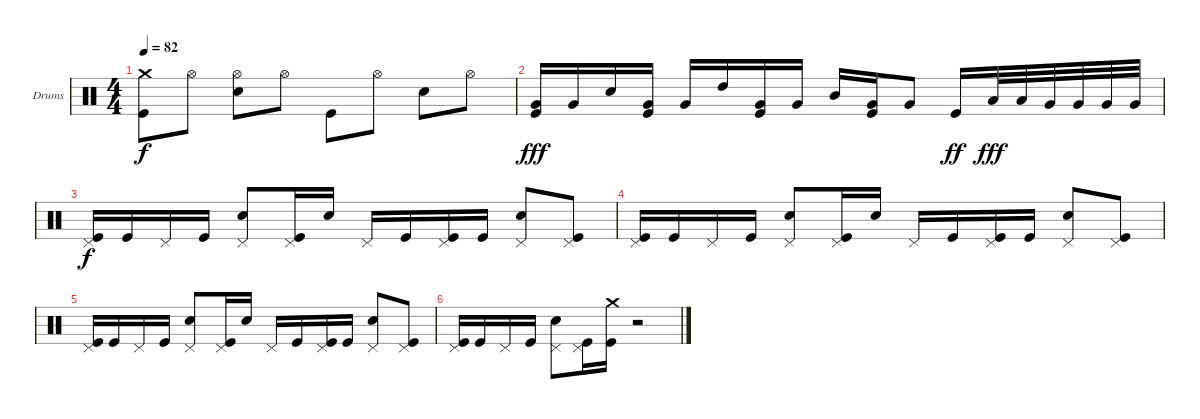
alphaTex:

\bracketExtendMode groupsimilarinstruments
\firstSystemTrackNameOrientation horizontal
\otherSystemsTrackNameOrientation horizontal
\track ("Drumkit" "Drums") {instrument percussion}
\staff {score}
\articulation defaults
\ts (4 4)
\tempo 82
\clef neutral
\ks c
("Crash medium (hit)" "Kick (hit)").8{dy f} "Hi-Hat (open)".8 ("Hi-Hat (open)" "Snare (hit) 2").8 "Hi-Hat (open)".8 "Kick (hit)".8 "Hi-Hat (open)".8 "Snare (hit) 2".8 "Hi-Hat (open)".8 |
("Very Low Tom (hit)" "Kick (hit)").16{dy fff} "Very Low Tom (hit)".16 "Snare (hit) 2".16 ("Very Low Tom (hit)" "Kick (hit)").16 "Very Low Tom (hit)".16 "High Tom (hit)".16 ("Very Low Tom (hit)" "Kick (hit)").16 "Very Low Tom (hit)".16 "Mid Tom (hit)".16 ("Very Low Tom (hit)" "Kick (hit)").16 "Very Low Tom (hit)".8 "Kick (hit)".16{dy ff} "Low Tom (hit)".32{dy fff} "Low Tom (hit)".32 "Very Low Tom (hit)".32 "Very Low Tom (hit)".32 "Very Low Tom (hit)".32 "Very Low Tom (hit)".32 |
("Pedal Hi-Hat (hit)" "Kick (hit)").16{dy f} "Kick (hit)".16 "Pedal Hi-Hat (hit)".16 "Kick (hit)".16 ("Pedal Hi-Hat (hit)" "Snare (hit) 2").8 ("Pedal Hi-Hat (hit)" "Kick (hit)").16 "Snare (hit) 2".16 "Pedal Hi-Hat (hit)".16 "Kick (hit)".16 ("Pedal Hi-Hat (hit)" "Kick (hit)").16 "Kick (hit)".16 ("Pedal Hi-Hat (hit)" "Snare (hit) 2").8 ("Pedal Hi-Hat (hit)" "Kick (hit)").8 |
("Pedal Hi-Hat (hit)" "Kick (hit)").16 "Kick (hit)".16 "Pedal Hi-Hat (hit)".16 "Kick (hit)".16 ("Pedal Hi-Hat (hit)" "Snare (hit) 2").8 ("Pedal Hi-Hat (hit)" "Kick (hit)").16 "Snare (hit) 2".16 "Pedal Hi-Hat (hit)".16 "Kick (hit)".16 ("Pedal Hi-Hat (hit)" "Kick (hit)").16 "Kick (hit)".16 ("Pedal Hi-Hat (hit)" "Snare (hit) 2").8 ("Pedal Hi-Hat (hit)" "Kick (hit)").8 |
("Pedal Hi-Hat (hit)" "Kick (hit)").16 "Kick (hit)".16 "Pedal Hi-Hat (hit)".16 "Kick (hit)".16 ("Pedal Hi-Hat (hit)" "Snare (hit) 2").8 ("Pedal Hi-Hat (hit)" "Kick (hit)").16 "Snare (hit) 2".16 "Pedal Hi-Hat (hit)".16 "Kick (hit)".16 ("Pedal Hi-Hat (hit)" "Kick (hit)").16 "Kick (hit)".16 ("Pedal Hi-Hat (hit)" "Snare (hit) 2").8 ("Pedal Hi-Hat (hit)" "Kick (hit)").8 |
("Pedal Hi-Hat (hit)" "Kick (hit)").16 "Kick (hit)".16 "Pedal Hi-Hat (hit)".16 "Kick (hit)".16 ("Pedal Hi-Hat (hit)" "Snare (hit) 2").8 ("Pedal Hi-Hat (hit)" "Kick (hit)").16 ("Crash medium (hit)" "Kick (hit)").16 r.2
